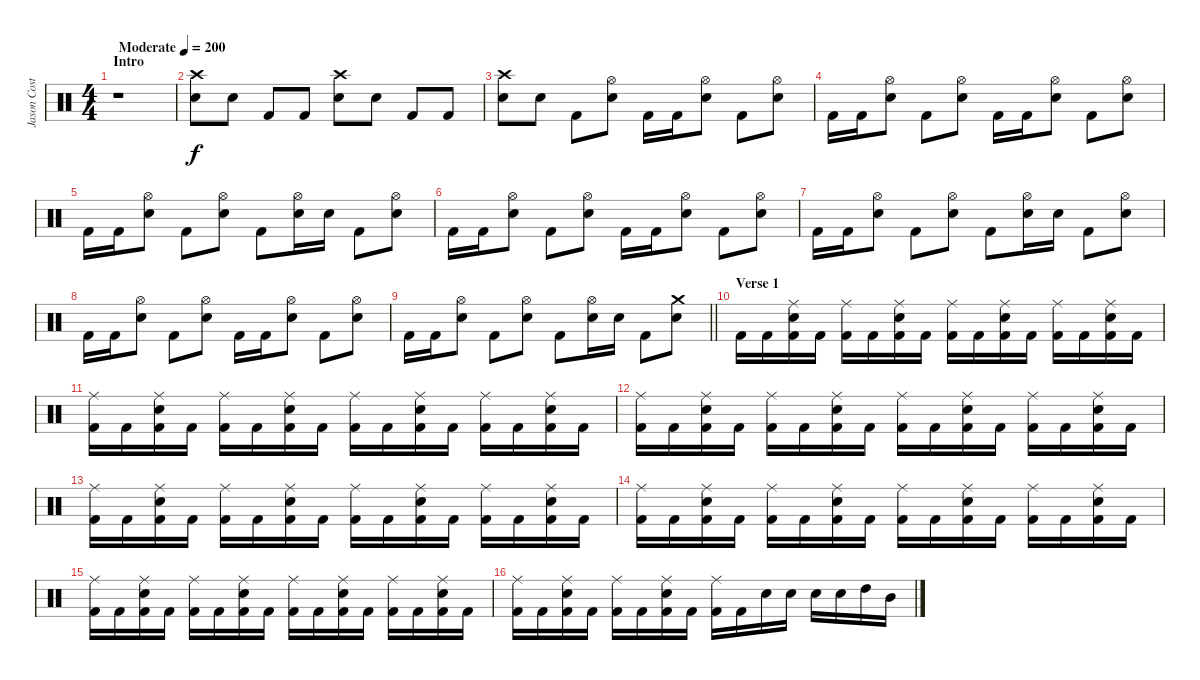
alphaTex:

\track ("Jason Costa" "Jason Cost") {instrument percussion}
\staff {score}
\articulation defaults
\ts (4 4)
\section ("" "Intro")
\tempo (200 "Moderate")
\clef neutral
\ks c
r.1{dy f} |
("Crash high (hit)" "Electric Snare (hit)").8 "Electric Snare (hit)".8 "Kick (hit) 2".8 "Kick (hit) 2".8 ("Crash high (hit)" "Electric Snare (hit)").8 "Electric Snare (hit)".8 "Kick (hit) 2".8 "Kick (hit) 2".8 |
("Crash high (hit)" "Electric Snare (hit)").8 "Electric Snare (hit)".8 "Kick (hit) 2".8 ("Hi-Hat (open)" "Electric Snare (hit)").8 "Kick (hit) 2".16 "Kick (hit) 2".16 ("Hi-Hat (open)" "Electric Snare (hit)").8 "Kick (hit) 2".8 ("Hi-Hat (open)" "Electric Snare (hit)").8 |
"Kick (hit) 2".16 "Kick (hit) 2".16 ("Hi-Hat (open)" "Electric Snare (hit)").8 "Kick (hit) 2".8 ("Hi-Hat (open)" "Electric Snare (hit)").8 "Kick (hit) 2".16 "Kick (hit) 2".16 ("Hi-Hat (open)" "Electric Snare (hit)").8 "Kick (hit) 2".8 ("Hi-Hat (open)" "Electric Snare (hit)").8 |
"Kick (hit) 2".16 "Kick (hit) 2".16 ("Hi-Hat (open)" "Electric Snare (hit)").8 "Kick (hit) 2".8 ("Hi-Hat (open)" "Electric Snare (hit)").8 "Kick (hit) 2".8 ("Hi-Hat (open)" "Electric Snare (hit)").16 "Electric Snare (hit)".16 "Kick (hit) 2".8 ("Hi-Hat (open)" "Electric Snare (hit)").8 |
"Kick (hit) 2".16 "Kick (hit) 2".16 ("Hi-Hat (open)" "Electric Snare (hit)").8 "Kick (hit) 2".8 ("Hi-Hat (open)" "Electric Snare (hit)").8 "Kick (hit) 2".16 "Kick (hit) 2".16 ("Hi-Hat (open)" "Electric Snare (hit)").8 "Kick (hit) 2".8 ("Hi-Hat (open)" "Electric Snare (hit)").8 |
"Kick (hit) 2".16 "Kick (hit) 2".16 ("Hi-Hat (open)" "Electric Snare (hit)").8 "Kick (hit) 2".8 ("Hi-Hat (open)" "Electric Snare (hit)").8 "Kick (hit) 2".8 ("Hi-Hat (open)" "Electric Snare (hit)").16 "Electric Snare (hit)".16 "Kick (hit) 2".8 ("Hi-Hat (open)" "Electric Snare (hit)").8 |
"Kick (hit) 2".16 "Kick (hit) 2".16 ("Hi-Hat (open)" "Electric Snare (hit)").8 "Kick (hit) 2".8 ("Hi-Hat (open)" "Electric Snare (hit)").8 "Kick (hit) 2".16 "Kick (hit) 2".16 ("Hi-Hat (open)" "Electric Snare (hit)").8 "Kick (hit) 2".8 ("Hi-Hat (open)" "Electric Snare (hit)").8 |
\barLineRight lightlight "Kick (hit) 2".16 "Kick (hit) 2".16
("Hi-Hat (open)" "Electric Snare (hit)").8 "Kick (hit) 2".8 ("Hi-Hat (open)" "Electric Snare (hit)").8 "Kick (hit) 2".8 ("Hi-Hat (open)" "Electric Snare (hit)").16 "Electric Snare (hit)".16 "Kick (hit) 2".8 ("Crash medium (hit)" "Electric Snare (hit)").8 |
\section ("" "Verse 1")
"Kick (hit) 2".16 "Kick (hit) 2".16 ("Ride (middle)" "Electric Snare (hit)" "Kick (hit) 2").16 "Kick (hit) 2".16 ("Ride (middle)" "Kick (hit) 2").16 "Kick (hit) 2".16 ("Ride (middle)" "Electric Snare (hit)" "Kick (hit) 2").16 "Kick (hit) 2".16 ("Ride (middle)" "Kick (hit) 2").16 "Kick (hit) 2".16 ("Ride (middle)" "Electric Snare (hit)" "Kick (hit) 2").16 "Kick (hit) 2".16 ("Ride (middle)" "Kick (hit) 2").16 "Kick (hit) 2".16 ("Ride (middle)" "Electric Snare (hit)" "Kick (hit) 2").16 "Kick (hit) 2".16 |
("Ride (middle)" "Kick (hit) 2").16 "Kick (hit) 2".16 ("Ride (middle)" "Electric Snare (hit)" "Kick (hit) 2").16 "Kick (hit) 2".16 ("Ride (middle)" "Kick (hit) 2").16 "Kick (hit) 2".16 ("Ride (middle)" "Electric Snare (hit)" "Kick (hit) 2").16 "Kick (hit) 2".16 ("Ride (middle)" "Kick (hit) 2").16 "Kick (hit) 2".16 ("Ride (middle)" "Electric Snare (hit)" "Kick (hit) 2").16 "Kick (hit) 2".16 ("Ride (middle)" "Kick (hit) 2").16 "Kick (hit) 2".16 ("Ride (middle)" "Electric Snare (hit)" "Kick (hit) 2").16 "Kick (hit) 2".16 |
("Ride (middle)" "Kick (hit) 2").16 "Kick (hit) 2".16 ("Ride (middle)" "Electric Snare (hit)" "Kick (hit) 2").16 "Kick (hit) 2".16 ("Ride (middle)" "Kick (hit) 2").16 "Kick (hit) 2".16 ("Ride (middle)" "Electric Snare (hit)" "Kick (hit) 2").16 "Kick (hit) 2".16 ("Ride (middle)" "Kick (hit) 2").16 "Kick (hit) 2".16 ("Ride (middle)" "Electric Snare (hit)" "Kick (hit) 2").16 "Kick (hit) 2".16 ("Ride (middle)" "Kick (hit) 2").16 "Kick (hit) 2".16 ("Ride (middle)" "Electric Snare (hit)" "Kick (hit) 2").16 "Kick (hit) 2".16 |
("Ride (middle)" "Kick (hit) 2").16 "Kick (hit) 2".16 ("Ride (middle)" "Electric Snare (hit)" "Kick (hit) 2").16 "Kick (hit) 2".16 ("Ride (middle)" "Kick (hit) 2").16 "Kick (hit) 2".16 ("Ride (middle)" "Electric Snare (hit)" "Kick (hit) 2").16 "Kick (hit) 2".16 ("Ride (middle)" "Kick (hit) 2").16 "Kick (hit) 2".16 ("Ride (middle)" "Electric Snare (hit)" "Kick (hit) 2").16 "Kick (hit) 2".16 ("Ride (middle)" "Kick (hit) 2").16 "Kick (hit) 2".16 ("Ride (middle)" "Electric Snare (hit)" "Kick (hit) 2").16 "Kick (hit) 2".16 |
("Ride (middle)" "Kick (hit) 2").16 "Kick (hit) 2".16 ("Ride (middle)" "Electric Snare (hit)" "Kick (hit) 2").16 "Kick (hit) 2".16 ("Ride (middle)" "Kick (hit) 2").16 "Kick (hit) 2".16 ("Ride (middle)" "Electric Snare (hit)" "Kick (hit) 2").16 "Kick (hit) 2".16 ("Ride (middle)" "Kick (hit) 2").16 "Kick (hit) 2".16 ("Ride (middle)" "Electric Snare (hit)" "Kick (hit) 2").16 "Kick (hit) 2".16 ("Ride (middle)" "Kick (hit) 2").16 "Kick (hit) 2".16 ("Ride (middle)" "Electric Snare (hit)" "Kick (hit) 2").16 "Kick (hit) 2".16 |
("Ride (middle)" "Kick (hit) 2").16 "Kick (hit) 2".16 ("Ride (middle)" "Electric Snare (hit)" "Kick (hit) 2").16 "Kick (hit) 2".16 ("Ride (middle)" "Kick (hit) 2").16 "Kick (hit) 2".16 ("Ride (middle)" "Electric Snare (hit)" "Kick (hit) 2").16 "Kick (hit) 2".16 ("Ride (middle)" "Kick (hit) 2").16 "Kick (hit) 2".16 ("Ride (middle)" "Electric Snare (hit)" "Kick (hit) 2").16 "Kick (hit) 2".16 ("Ride (middle)" "Kick (hit) 2").16 "Kick (hit) 2".16 ("Ride (middle)" "Electric Snare (hit)" "Kick (hit) 2").16 "Kick (hit) 2".16 |
("Ride (middle)" "Kick (hit) 2").16 "Kick (hit) 2".16 ("Ride (middle)" "Electric Snare (hit)" "Kick (hit) 2").16 "Kick (hit) 2".16 ("Ride (middle)" "Kick (hit) 2").16 "Kick (hit) 2".16 ("Ride (middle)" "Electric Snare (hit)" "Kick (hit) 2").16 "Kick (hit) 2".16 ("Ride (middle)" "Kick (hit) 2").16 "Kick (hit) 2".16 "Electric Snare (hit)".16 "Electric Snare (hit)".16 "Electric Snare (hit)".16 "Electric Snare (hit)".16 "High Tom (hit)".16 "Mid Tom (hit)".16
